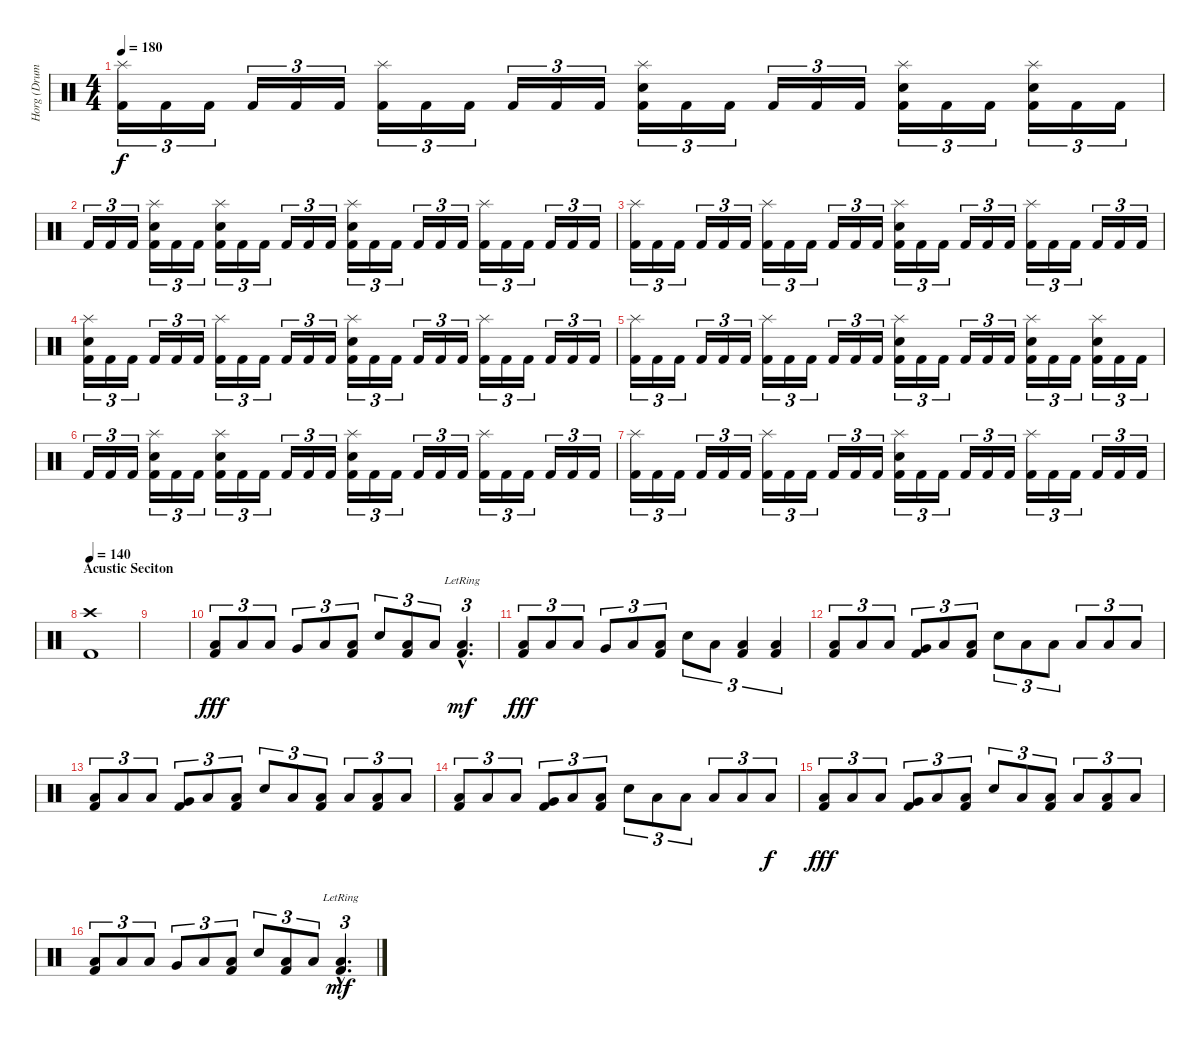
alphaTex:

\track ("Horg (Drums)" "Horg (Drum") {instrument percussion}
\staff {score}
\articulation defaults
\ts (4 4)
\tempo 180
\clef neutral
\ks c
("Splash (hit)" "Kick (hit) 2").16{tu (3 2) dy f} "Kick (hit) 2".16{tu (3 2)} "Kick (hit) 2".16{tu (3 2)} "Kick (hit) 2".16{tu (3 2)} "Kick (hit) 2".16{tu (3 2)} "Kick (hit) 2".16{tu (3 2)} ("Splash (hit)" "Kick (hit) 2").16{tu (3 2)} "Kick (hit) 2".16{tu (3 2)} "Kick (hit) 2".16{tu (3 2)} "Kick (hit) 2".16{tu (3 2)} "Kick (hit) 2".16{tu (3 2)} "Kick (hit) 2".16{tu (3 2)} ("Splash (hit)" "Electric Snare (hit)" "Kick (hit) 2").16{tu (3 2)} "Kick (hit) 2".16{tu (3 2)} "Kick (hit) 2".16{tu (3 2)} "Kick (hit) 2".16{tu (3 2)} "Kick (hit) 2".16{tu (3 2)} "Kick (hit) 2".16{tu (3 2)} ("Splash (hit)" "Electric Snare (hit)" "Kick (hit) 2").16{tu (3 2)} "Kick (hit) 2".16{tu (3 2)} "Kick (hit) 2".16{tu (3 2)} ("Splash (hit)" "Electric Snare (hit)" "Kick (hit) 2").16{tu (3 2)} "Kick (hit) 2".16{tu (3 2)} "Kick (hit) 2".16{tu (3 2)} |
"Kick (hit) 2".16{tu (3 2)} "Kick (hit) 2".16{tu (3 2)} "Kick (hit) 2".16{tu (3 2)} ("Splash (hit)" "Electric Snare (hit)" "Kick (hit) 2").16{tu (3 2)} "Kick (hit) 2".16{tu (3 2)} "Kick (hit) 2".16{tu (3 2)} ("Splash (hit)" "Electric Snare (hit)" "Kick (hit) 2").16{tu (3 2)} "Kick (hit) 2".16{tu (3 2)} "Kick (hit) 2".16{tu (3 2)} "Kick (hit) 2".16{tu (3 2)} "Kick (hit) 2".16{tu (3 2)} "Kick (hit) 2".16{tu (3 2)} ("Splash (hit)" "Electric Snare (hit)" "Kick (hit) 2").16{tu (3 2)} "Kick (hit) 2".16{tu (3 2)} "Kick (hit) 2".16{tu (3 2)} "Kick (hit) 2".16{tu (3 2)} "Kick (hit) 2".16{tu (3 2)} "Kick (hit) 2".16{tu (3 2)} ("Splash (hit)" "Kick (hit) 2").16{tu (3 2)} "Kick (hit) 2".16{tu (3 2)} "Kick (hit) 2".16{tu (3 2)} "Kick (hit) 2".16{tu (3 2)} "Kick (hit) 2".16{tu (3 2)} "Kick (hit) 2".16{tu (3 2)} |
("Splash (hit)" "Kick (hit) 2").16{tu (3 2)} "Kick (hit) 2".16{tu (3 2)} "Kick (hit) 2".16{tu (3 2)} "Kick (hit) 2".16{tu (3 2)} "Kick (hit) 2".16{tu (3 2)} "Kick (hit) 2".16{tu (3 2)} ("Splash (hit)" "Kick (hit) 2").16{tu (3 2)} "Kick (hit) 2".16{tu (3 2)} "Kick (hit) 2".16{tu (3 2)} "Kick (hit) 2".16{tu (3 2)} "Kick (hit) 2".16{tu (3 2)} "Kick (hit) 2".16{tu (3 2)} ("Splash (hit)" "Electric Snare (hit)" "Kick (hit) 2").16{tu (3 2)} "Kick (hit) 2".16{tu (3 2)} "Kick (hit) 2".16{tu (3 2)} "Kick (hit) 2".16{tu (3 2)} "Kick (hit) 2".16{tu (3 2)} "Kick (hit) 2".16{tu (3 2)} ("Splash (hit)" "Kick (hit) 2").16{tu (3 2)} "Kick (hit) 2".16{tu (3 2)} "Kick (hit) 2".16{tu (3 2)} "Kick (hit) 2".16{tu (3 2)} "Kick (hit) 2".16{tu (3 2)} "Kick (hit) 2".16{tu (3 2)} |
("Splash (hit)" "Electric Snare (hit)" "Kick (hit) 2").16{tu (3 2)} "Kick (hit) 2".16{tu (3 2)} "Kick (hit) 2".16{tu (3 2)} "Kick (hit) 2".16{tu (3 2)} "Kick (hit) 2".16{tu (3 2)} "Kick (hit) 2".16{tu (3 2)} ("Splash (hit)" "Kick (hit) 2").16{tu (3 2)} "Kick (hit) 2".16{tu (3 2)} "Kick (hit) 2".16{tu (3 2)} "Kick (hit) 2".16{tu (3 2)} "Kick (hit) 2".16{tu (3 2)} "Kick (hit) 2".16{tu (3 2)} ("Splash (hit)" "Electric Snare (hit)" "Kick (hit) 2").16{tu (3 2)} "Kick (hit) 2".16{tu (3 2)} "Kick (hit) 2".16{tu (3 2)} "Kick (hit) 2".16{tu (3 2)} "Kick (hit) 2".16{tu (3 2)} "Kick (hit) 2".16{tu (3 2)} ("Splash (hit)" "Kick (hit) 2").16{tu (3 2)} "Kick (hit) 2".16{tu (3 2)} "Kick (hit) 2".16{tu (3 2)} "Kick (hit) 2".16{tu (3 2)} "Kick (hit) 2".16{tu (3 2)} "Kick (hit) 2".16{tu (3 2)} |
("Splash (hit)" "Kick (hit) 2").16{tu (3 2)} "Kick (hit) 2".16{tu (3 2)} "Kick (hit) 2".16{tu (3 2)} "Kick (hit) 2".16{tu (3 2)} "Kick (hit) 2".16{tu (3 2)} "Kick (hit) 2".16{tu (3 2)} ("Splash (hit)" "Kick (hit) 2").16{tu (3 2)} "Kick (hit) 2".16{tu (3 2)} "Kick (hit) 2".16{tu (3 2)} "Kick (hit) 2".16{tu (3 2)} "Kick (hit) 2".16{tu (3 2)} "Kick (hit) 2".16{tu (3 2)} ("Splash (hit)" "Electric Snare (hit)" "Kick (hit) 2").16{tu (3 2)} "Kick (hit) 2".16{tu (3 2)} "Kick (hit) 2".16{tu (3 2)} "Kick (hit) 2".16{tu (3 2)} "Kick (hit) 2".16{tu (3 2)} "Kick (hit) 2".16{tu (3 2)} ("Splash (hit)" "Electric Snare (hit)" "Kick (hit) 2").16{tu (3 2)} "Kick (hit) 2".16{tu (3 2)} "Kick (hit) 2".16{tu (3 2)} ("Splash (hit)" "Electric Snare (hit)" "Kick (hit) 2").16{tu (3 2)} "Kick (hit) 2".16{tu (3 2)} "Kick (hit) 2".16{tu (3 2)} |
"Kick (hit) 2".16{tu (3 2)} "Kick (hit) 2".16{tu (3 2)} "Kick (hit) 2".16{tu (3 2)} ("Splash (hit)" "Electric Snare (hit)" "Kick (hit) 2").16{tu (3 2)} "Kick (hit) 2".16{tu (3 2)} "Kick (hit) 2".16{tu (3 2)} ("Splash (hit)" "Electric Snare (hit)" "Kick (hit) 2").16{tu (3 2)} "Kick (hit) 2".16{tu (3 2)} "Kick (hit) 2".16{tu (3 2)} "Kick (hit) 2".16{tu (3 2)} "Kick (hit) 2".16{tu (3 2)} "Kick (hit) 2".16{tu (3 2)} ("Splash (hit)" "Electric Snare (hit)" "Kick (hit) 2").16{tu (3 2)} "Kick (hit) 2".16{tu (3 2)} "Kick (hit) 2".16{tu (3 2)} "Kick (hit) 2".16{tu (3 2)} "Kick (hit) 2".16{tu (3 2)} "Kick (hit) 2".16{tu (3 2)} ("Splash (hit)" "Kick (hit) 2").16{tu (3 2)} "Kick (hit) 2".16{tu (3 2)} "Kick (hit) 2".16{tu (3 2)} "Kick (hit) 2".16{tu (3 2)} "Kick (hit) 2".16{tu (3 2)} "Kick (hit) 2".16{tu (3 2)} |
("Splash (hit)" "Kick (hit) 2").16{tu (3 2)} "Kick (hit) 2".16{tu (3 2)} "Kick (hit) 2".16{tu (3 2)} "Kick (hit) 2".16{tu (3 2)} "Kick (hit) 2".16{tu (3 2)} "Kick (hit) 2".16{tu (3 2)} ("Splash (hit)" "Kick (hit) 2").16{tu (3 2)} "Kick (hit) 2".16{tu (3 2)} "Kick (hit) 2".16{tu (3 2)} "Kick (hit) 2".16{tu (3 2)} "Kick (hit) 2".16{tu (3 2)} "Kick (hit) 2".16{tu (3 2)} ("Splash (hit)" "Electric Snare (hit)" "Kick (hit) 2").16{tu (3 2)} "Kick (hit) 2".16{tu (3 2)} "Kick (hit) 2".16{tu (3 2)} "Kick (hit) 2".16{tu (3 2)} "Kick (hit) 2".16{tu (3 2)} "Kick (hit) 2".16{tu (3 2)} ("Splash (hit)" "Kick (hit) 2").16{tu (3 2)} "Kick (hit) 2".16{tu (3 2)} "Kick (hit) 2".16{tu (3 2)} "Kick (hit) 2".16{tu (3 2)} "Kick (hit) 2".16{tu (3 2)} "Kick (hit) 2".16{tu (3 2)} |
\section ("" "Acustic Seciton")
\tempo 140
("Crash high (hit)" "Kick (hit) 2").1 |
|
("Low Floor Tom (hit)" "Kick (hit) 2").8{tu (3 2) dy fff} "Low Floor Tom (hit)".8{tu (3 2)} "Low Floor Tom (hit)".8{tu (3 2)} "Very Low Tom (hit)".8{tu (3 2)} "Low Floor Tom (hit)".8{tu (3 2)} ("Low Floor Tom (hit)" "Kick (hit) 2").8{tu (3 2)} "Electric Snare (hit)".8{tu (3 2)} ("Low Floor Tom (hit)" "Kick (hit) 2").8{tu (3 2)} "Low Floor Tom (hit)".8{tu (3 2)} ("Low Floor Tom (hit)"{hac} "Kick (hit) 2"{hac lr}).4{d tu (3 2) dy mf} |
("Low Floor Tom (hit)" "Kick (hit) 2").8{tu (3 2) dy fff} "Low Floor Tom (hit)".8{tu (3 2)} "Low Floor Tom (hit)".8{tu (3 2)} "Very Low Tom (hit)".8{tu (3 2)} "Low Floor Tom (hit)".8{tu (3 2)} ("Low Floor Tom (hit)" "Kick (hit) 2").8{tu (3 2)} "Electric Snare (hit)".8{tu (3 2)} "Low Floor Tom (hit)".8{tu (3 2)} ("Low Floor Tom (hit)" "Kick (hit) 2").4{tu (3 2)} ("Low Floor Tom (hit)" "Kick (hit) 2").4{tu (3 2)} |
("Low Floor Tom (hit)" "Kick (hit) 2").8{tu (3 2)} "Low Floor Tom (hit)".8{tu (3 2)} "Low Floor Tom (hit)".8{tu (3 2)} ("Very Low Tom (hit)" "Kick (hit) 2").8{tu (3 2)} "Low Floor Tom (hit)".8{tu (3 2)} ("Low Floor Tom (hit)" "Kick (hit) 2").8{tu (3 2)} "Electric Snare (hit)".8{tu (3 2)} "Low Floor Tom (hit)".8{tu (3 2)} "Low Floor Tom (hit)".8{tu (3 2)} "Low Floor Tom (hit)".8{tu (3 2)} "Low Floor Tom (hit)".8{tu (3 2)} "Low Floor Tom (hit)".8{tu (3 2)} |
("Low Floor Tom (hit)" "Kick (hit) 2").8{tu (3 2)} "Low Floor Tom (hit)".8{tu (3 2)} "Low Floor Tom (hit)".8{tu (3 2)} ("Very Low Tom (hit)" "Kick (hit) 2").8{tu (3 2)} "Low Floor Tom (hit)".8{tu (3 2)} ("Low Floor Tom (hit)" "Kick (hit) 2").8{tu (3 2)} "Electric Snare (hit)".8{tu (3 2)} "Low Floor Tom (hit)".8{tu (3 2)} ("Low Floor Tom (hit)" "Kick (hit) 2").8{tu (3 2)} "Low Floor Tom (hit)".8{tu (3 2)} ("Low Floor Tom (hit)" "Kick (hit) 2").8{tu (3 2)} "Low Floor Tom (hit)".8{tu (3 2)} |
("Low Floor Tom (hit)" "Kick (hit) 2").8{tu (3 2)} "Low Floor Tom (hit)".8{tu (3 2)} "Low Floor Tom (hit)".8{tu (3 2)} ("Very Low Tom (hit)" "Kick (hit) 2").8{tu (3 2)} "Low Floor Tom (hit)".8{tu (3 2)} ("Low Floor Tom (hit)" "Kick (hit) 2").8{tu (3 2)} "Electric Snare (hit)".8{tu (3 2)} "Low Floor Tom (hit)".8{tu (3 2)} "Low Floor Tom (hit)".8{tu (3 2)} "Low Floor Tom (hit)".8{tu (3 2)} "Low Floor Tom (hit)".8{tu (3 2)} "Low Floor Tom (hit)".8{tu (3 2) dy f} |
("Low Floor Tom (hit)" "Kick (hit) 2").8{tu (3 2) dy fff} "Low Floor Tom (hit)".8{tu (3 2)} "Low Floor Tom (hit)".8{tu (3 2)} ("Very Low Tom (hit)" "Kick (hit) 2").8{tu (3 2)} "Low Floor Tom (hit)".8{tu (3 2)} ("Low Floor Tom (hit)" "Kick (hit) 2").8{tu (3 2)} "Electric Snare (hit)".8{tu (3 2)} "Low Floor Tom (hit)".8{tu (3 2)} ("Low Floor Tom (hit)" "Kick (hit) 2").8{tu (3 2)} "Low Floor Tom (hit)".8{tu (3 2)} ("Low Floor Tom (hit)" "Kick (hit) 2").8{tu (3 2)} "Low Floor Tom (hit)".8{tu (3 2)} |
("Low Floor Tom (hit)" "Kick (hit) 2").8{tu (3 2)} "Low Floor Tom (hit)".8{tu (3 2)} "Low Floor Tom (hit)".8{tu (3 2)} "Very Low Tom (hit)".8{tu (3 2)} "Low Floor Tom (hit)".8{tu (3 2)} ("Low Floor Tom (hit)" "Kick (hit) 2").8{tu (3 2)} "Electric Snare (hit)".8{tu (3 2)} ("Low Floor Tom (hit)" "Kick (hit) 2").8{tu (3 2)} "Low Floor Tom (hit)".8{tu (3 2)} ("Low Floor Tom (hit)"{hac} "Kick (hit) 2"{hac lr}).4{d tu (3 2) dy mf}
